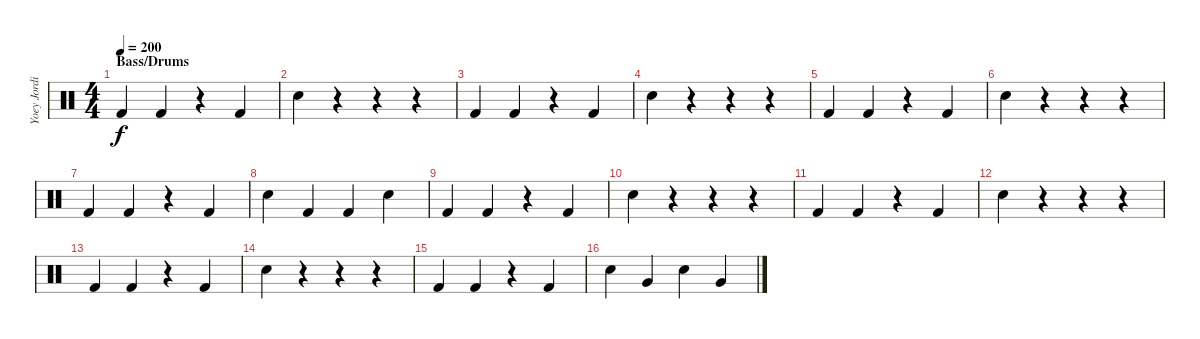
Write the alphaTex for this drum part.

\track ("Yoey Jordison" "Yoey Jordi") {instrument percussion}
\staff {score}
\articulation defaults
\ts (4 4)
\section ("" "Bass/Drums")
\tempo 200
\clef neutral
\ks c "Kick (hit) 2".4{dy f} "Kick (hit) 2".4
r.4 "Kick (hit) 2".4 |
"Snare (hit) 2".4 r.4 r.4 r.4 |
"Kick (hit) 2".4 "Kick (hit) 2".4 r.4 "Kick (hit) 2".4 |
"Snare (hit) 2".4 r.4 r.4 r.4 |
"Kick (hit) 2".4 "Kick (hit) 2".4 r.4 "Kick (hit) 2".4 |
"Snare (hit) 2".4 r.4 r.4 r.4 |
"Kick (hit) 2".4 "Kick (hit) 2".4 r.4 "Kick (hit) 2".4 |
"Snare (hit) 2".4 "Kick (hit) 2".4 "Kick (hit) 2".4 "Snare (hit) 2".4 |
"Kick (hit) 2".4 "Kick (hit) 2".4 r.4 "Kick (hit) 2".4 |
"Snare (hit) 2".4 r.4 r.4 r.4 |
"Kick (hit) 2".4 "Kick (hit) 2".4 r.4 "Kick (hit) 2".4 |
"Snare (hit) 2".4 r.4 r.4 r.4 |
"Kick (hit) 2".4 "Kick (hit) 2".4 r.4 "Kick (hit) 2".4 |
"Snare (hit) 2".4 r.4 r.4 r.4 |
"Kick (hit) 2".4 "Kick (hit) 2".4 r.4 "Kick (hit) 2".4 |
"Snare (hit) 2".4 "Very Low Tom (hit)".4 "Snare (hit) 2".4 "Very Low Tom (hit)".4
